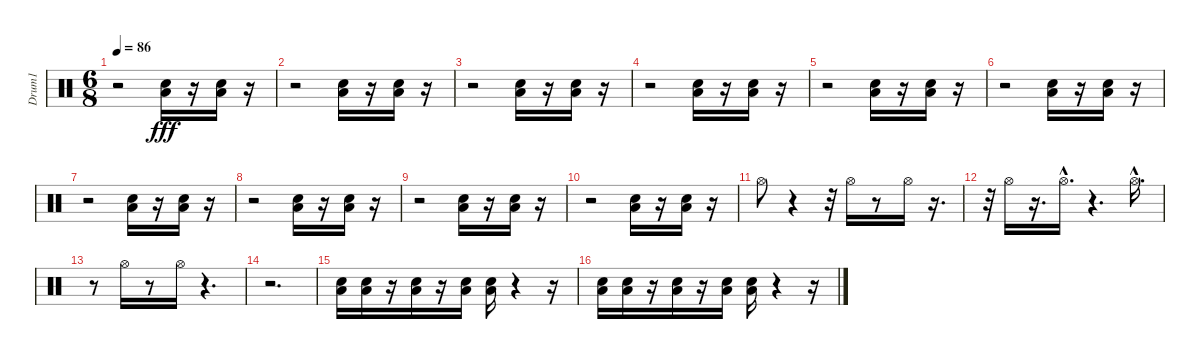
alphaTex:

\track ("Drum1" "Drum1") {instrument percussion}
\staff {score}
\articulation defaults
\ts (6 8)
\tempo 86
\clef neutral
\ks c
r.2{dy fff} ("Snare (hit) 2" "Low Floor Tom (hit)").16 r.16 ("Snare (hit) 2" "Low Floor Tom (hit)").16 r.16 |
r.2 ("Snare (hit) 2" "Low Floor Tom (hit)").16 r.16 ("Snare (hit) 2" "Low Floor Tom (hit)").16 r.16 |
r.2 ("Snare (hit) 2" "Low Floor Tom (hit)").16 r.16 ("Snare (hit) 2" "Low Floor Tom (hit)").16 r.16 |
r.2 ("Snare (hit) 2" "Low Floor Tom (hit)").16 r.16 ("Snare (hit) 2" "Low Floor Tom (hit)").16 r.16 |
r.2 ("Snare (hit) 2" "Low Floor Tom (hit)").16 r.16 ("Snare (hit) 2" "Low Floor Tom (hit)").16 r.16 |
r.2 ("Snare (hit) 2" "Low Floor Tom (hit)").16 r.16 ("Snare (hit) 2" "Low Floor Tom (hit)").16 r.16 |
r.2 ("Snare (hit) 2" "Low Floor Tom (hit)").16 r.16 ("Snare (hit) 2" "Low Floor Tom (hit)").16 r.16 |
r.2 ("Snare (hit) 2" "Low Floor Tom (hit)").16 r.16 ("Snare (hit) 2" "Low Floor Tom (hit)").16 r.16 |
r.2 ("Snare (hit) 2" "Low Floor Tom (hit)").16 r.16 ("Snare (hit) 2" "Low Floor Tom (hit)").16 r.16 |
r.2 ("Snare (hit) 2" "Low Floor Tom (hit)").16 r.16 ("Snare (hit) 2" "Low Floor Tom (hit)").16 r.16 |
"Hi-Hat (open)".8 r.4 r.32 "Hi-Hat (open)".16{volume 9} r.8 "Hi-Hat (open)".16{volume 10} r.16{d} |
r.32 "Hi-Hat (open)".16{volume 10} r.16{d} "Hi-Hat (open)"{hac}.16{d volume 11} r.4{d} "Hi-Hat (open)"{hac}.16{d volume 13} |
r.8 "Hi-Hat (open)".16{volume 10} r.8 "Hi-Hat (open)".16{volume 12} r.4{d} |
r.2{d} |
("Snare (hit) 2" "Low Floor Tom (hit)").16{volume 5} ("Snare (hit) 2" "Low Floor Tom (hit)").16{volume 5} r.16 ("Snare (hit) 2" "Low Floor Tom (hit)").16{volume 5} r.16 ("Snare (hit) 2" "Low Floor Tom (hit)").16{volume 6} ("Snare (hit) 2" "Low Floor Tom (hit)").16 r.4 r.16 |
("Snare (hit) 2" "Low Floor Tom (hit)").16{volume 6} ("Snare (hit) 2" "Low Floor Tom (hit)").16{volume 6} r.16 ("Snare (hit) 2" "Low Floor Tom (hit)").16{volume 6} r.16 ("Snare (hit) 2" "Low Floor Tom (hit)").16{volume 6} ("Snare (hit) 2" "Low Floor Tom (hit)").16{volume 7} r.4 r.16
